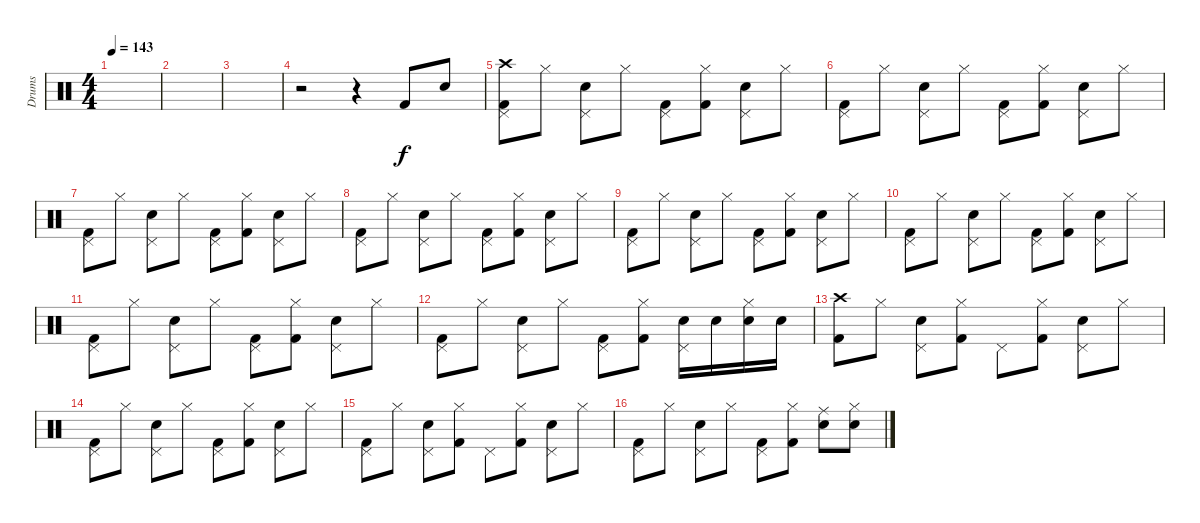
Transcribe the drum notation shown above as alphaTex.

\track ("Drums" "Drums") {instrument percussion}
\staff {score}
\articulation defaults
\ts (4 4)
\tempo 143
\clef neutral
\ks c
|
|
|
r.2 r.4 "Kick (hit) 2".8 "Electric Snare (hit)".8 |
("Kick (hit) 2" "Pedal Hi-Hat (hit)" "Crash high (hit)").8 "Hi-Hat (closed)".8 ("Electric Snare (hit)" "Pedal Hi-Hat (hit)").8 "Hi-Hat (closed)".8 ("Kick (hit) 2" "Pedal Hi-Hat (hit)").8 ("Kick (hit) 2" "Hi-Hat (closed)").8 ("Electric Snare (hit)" "Pedal Hi-Hat (hit)").8 "Hi-Hat (closed)".8 |
("Kick (hit) 2" "Pedal Hi-Hat (hit)").8 "Hi-Hat (closed)".8 ("Electric Snare (hit)" "Pedal Hi-Hat (hit)").8 "Hi-Hat (closed)".8 ("Kick (hit) 2" "Pedal Hi-Hat (hit)").8 ("Kick (hit) 2" "Hi-Hat (closed)").8 ("Electric Snare (hit)" "Pedal Hi-Hat (hit)").8 "Hi-Hat (closed)".8 |
("Kick (hit) 2" "Pedal Hi-Hat (hit)").8 "Hi-Hat (closed)".8 ("Electric Snare (hit)" "Pedal Hi-Hat (hit)").8 "Hi-Hat (closed)".8 ("Kick (hit) 2" "Pedal Hi-Hat (hit)").8 ("Kick (hit) 2" "Hi-Hat (closed)").8 ("Electric Snare (hit)" "Pedal Hi-Hat (hit)").8 "Hi-Hat (closed)".8 |
("Kick (hit) 2" "Pedal Hi-Hat (hit)").8 "Hi-Hat (closed)".8 ("Electric Snare (hit)" "Pedal Hi-Hat (hit)").8 "Hi-Hat (closed)".8 ("Kick (hit) 2" "Pedal Hi-Hat (hit)").8 ("Kick (hit) 2" "Hi-Hat (closed)").8 ("Electric Snare (hit)" "Pedal Hi-Hat (hit)").8 "Hi-Hat (closed)".8 |
("Kick (hit) 2" "Pedal Hi-Hat (hit)").8 "Hi-Hat (closed)".8 ("Electric Snare (hit)" "Pedal Hi-Hat (hit)").8 "Hi-Hat (closed)".8 ("Kick (hit) 2" "Pedal Hi-Hat (hit)").8 ("Kick (hit) 2" "Hi-Hat (closed)").8 ("Electric Snare (hit)" "Pedal Hi-Hat (hit)").8 "Hi-Hat (closed)".8 |
("Kick (hit) 2" "Pedal Hi-Hat (hit)").8 "Hi-Hat (closed)".8 ("Electric Snare (hit)" "Pedal Hi-Hat (hit)").8 "Hi-Hat (closed)".8 ("Kick (hit) 2" "Pedal Hi-Hat (hit)").8 ("Kick (hit) 2" "Hi-Hat (closed)").8 ("Electric Snare (hit)" "Pedal Hi-Hat (hit)").8 "Hi-Hat (closed)".8 |
("Kick (hit) 2" "Pedal Hi-Hat (hit)").8 "Hi-Hat (closed)".8 ("Electric Snare (hit)" "Pedal Hi-Hat (hit)").8 "Hi-Hat (closed)".8 ("Kick (hit) 2" "Pedal Hi-Hat (hit)").8 ("Kick (hit) 2" "Hi-Hat (closed)").8 ("Electric Snare (hit)" "Pedal Hi-Hat (hit)").8 "Hi-Hat (closed)".8 |
("Kick (hit) 2" "Pedal Hi-Hat (hit)").8 "Hi-Hat (closed)".8 ("Electric Snare (hit)" "Pedal Hi-Hat (hit)").8 "Hi-Hat (closed)".8 ("Kick (hit) 2" "Pedal Hi-Hat (hit)").8 ("Kick (hit) 2" "Hi-Hat (closed)").8 ("Electric Snare (hit)" "Pedal Hi-Hat (hit)").16 "Snare (hit) 2".16 ("Electric Snare (hit)" "Hi-Hat (closed)").16 "Snare (hit) 2".16 |
("Kick (hit) 2" "Crash high (hit)").8 "Hi-Hat (closed)".8 ("Electric Snare (hit)" "Pedal Hi-Hat (hit)").8 ("Kick (hit) 2" "Hi-Hat (closed)").8 "Pedal Hi-Hat (hit)".8 ("Kick (hit) 2" "Hi-Hat (closed)").8 ("Electric Snare (hit)" "Pedal Hi-Hat (hit)").8 "Hi-Hat (closed)".8 |
("Kick (hit) 2" "Pedal Hi-Hat (hit)").8 "Hi-Hat (closed)".8 ("Electric Snare (hit)" "Pedal Hi-Hat (hit)").8 "Hi-Hat (closed)".8 ("Kick (hit) 2" "Pedal Hi-Hat (hit)").8 ("Kick (hit) 2" "Hi-Hat (closed)").8 ("Electric Snare (hit)" "Pedal Hi-Hat (hit)").8 "Hi-Hat (closed)".8 |
("Kick (hit) 2" "Pedal Hi-Hat (hit)").8 "Hi-Hat (closed)".8 ("Electric Snare (hit)" "Pedal Hi-Hat (hit)").8 ("Kick (hit) 2" "Hi-Hat (closed)").8 "Pedal Hi-Hat (hit)".8 ("Kick (hit) 2" "Hi-Hat (closed)").8 ("Electric Snare (hit)" "Pedal Hi-Hat (hit)").8 "Hi-Hat (closed)".8 |
("Kick (hit) 2" "Pedal Hi-Hat (hit)").8 "Hi-Hat (closed)".8 ("Electric Snare (hit)" "Pedal Hi-Hat (hit)").8 "Hi-Hat (closed)".8 ("Kick (hit) 2" "Pedal Hi-Hat (hit)").8 ("Kick (hit) 2" "Hi-Hat (closed)").8 ("Electric Snare (hit)" "Ride (middle)").8 ("Electric Snare (hit)" "Hi-Hat (closed)").8
